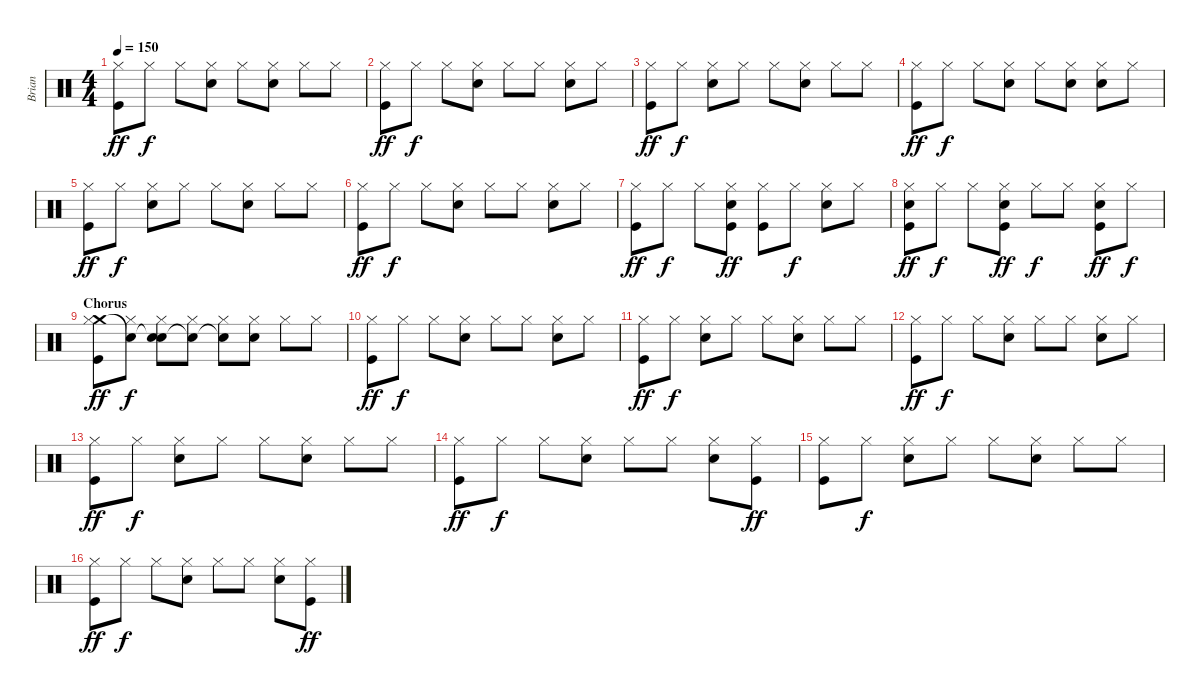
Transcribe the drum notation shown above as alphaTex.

\track ("Brian" "Brian") {instrument percussion}
\staff {score}
\articulation defaults
\ts (4 4)
\tempo 150
\clef neutral
\ks c
("Hi-Hat (closed)" "Kick (hit)").8{dy ff} "Hi-Hat (closed)".8{dy f} "Hi-Hat (closed)".8 ("Hi-Hat (closed)" "Snare (hit) 2").8 "Hi-Hat (closed)".8 ("Hi-Hat (closed)" "Snare (hit) 2").8 "Hi-Hat (closed)".8 "Hi-Hat (closed)".8 |
("Hi-Hat (closed)" "Kick (hit)").8{dy ff} "Hi-Hat (closed)".8{dy f} "Hi-Hat (closed)".8 ("Hi-Hat (closed)" "Snare (hit) 2").8 "Hi-Hat (closed)".8 "Hi-Hat (closed)".8 ("Hi-Hat (closed)" "Snare (hit) 2").8 "Hi-Hat (closed)".8 |
("Hi-Hat (closed)" "Kick (hit)").8{dy ff} "Hi-Hat (closed)".8{dy f} ("Hi-Hat (closed)" "Snare (hit) 2").8 "Hi-Hat (closed)".8 "Hi-Hat (closed)".8 ("Hi-Hat (closed)" "Snare (hit) 2").8 "Hi-Hat (closed)".8 "Hi-Hat (closed)".8 |
("Hi-Hat (closed)" "Kick (hit)").8{dy ff} "Hi-Hat (closed)".8{dy f} "Hi-Hat (closed)".8 ("Hi-Hat (closed)" "Snare (hit) 2").8 "Hi-Hat (closed)".8 ("Hi-Hat (closed)" "Snare (hit) 2").8 ("Hi-Hat (closed)" "Snare (hit) 2").8 "Hi-Hat (closed)".8 |
("Hi-Hat (closed)" "Kick (hit)").8{dy ff} "Hi-Hat (closed)".8{dy f} ("Hi-Hat (closed)" "Snare (hit) 2").8 "Hi-Hat (closed)".8 "Hi-Hat (closed)".8 ("Hi-Hat (closed)" "Snare (hit) 2").8 "Hi-Hat (closed)".8 "Hi-Hat (closed)".8 |
("Hi-Hat (closed)" "Kick (hit)").8{dy ff} "Hi-Hat (closed)".8{dy f} "Hi-Hat (closed)".8 ("Hi-Hat (closed)" "Snare (hit) 2").8 "Hi-Hat (closed)".8 "Hi-Hat (closed)".8 ("Hi-Hat (closed)" "Snare (hit) 2").8 "Hi-Hat (closed)".8 |
("Hi-Hat (closed)" "Kick (hit)").8{dy ff} "Hi-Hat (closed)".8{dy f} "Hi-Hat (closed)".8 ("Hi-Hat (closed)" "Snare (hit) 2" "Kick (hit)").8{dy ff} ("Hi-Hat (closed)" "Kick (hit)").8 "Hi-Hat (closed)".8{dy f} ("Hi-Hat (closed)" "Snare (hit) 2").8 "Hi-Hat (closed)".8 |
("Hi-Hat (closed)" "Snare (hit) 2" "Kick (hit)").8{dy ff} "Hi-Hat (closed)".8{dy f} "Hi-Hat (closed)".8 ("Hi-Hat (closed)" "Snare (hit) 2" "Kick (hit)").8{dy ff} "Hi-Hat (closed)".8{dy f} "Hi-Hat (closed)".8 ("Hi-Hat (closed)" "Snare (hit) 2" "Kick (hit)").8{dy ff} "Hi-Hat (closed)".8{dy f} |
\section ("" "Chorus")
("Crash medium (hit)" "Hi-Hat (closed)" "Kick (hit)").8{dy ff} ("Snare (hit)"{t} "Hi-Hat (closed)").8{dy f} ("Snare (hit)"{t} "Hi-Hat (closed)" "Snare (hit) 2").8 ("Snare (hit)"{t} "Hi-Hat (closed)").8 ("Snare (hit)"{t} "Hi-Hat (closed)").8 ("Hi-Hat (closed)" "Snare (hit) 2").8 "Hi-Hat (closed)".8 "Hi-Hat (closed)".8 |
("Hi-Hat (closed)" "Kick (hit)").8{dy ff} "Hi-Hat (closed)".8{dy f} "Hi-Hat (closed)".8 ("Hi-Hat (closed)" "Snare (hit) 2").8 "Hi-Hat (closed)".8 "Hi-Hat (closed)".8 ("Hi-Hat (closed)" "Snare (hit) 2").8 "Hi-Hat (closed)".8 |
("Hi-Hat (closed)" "Kick (hit)").8{dy ff} "Hi-Hat (closed)".8{dy f} ("Hi-Hat (closed)" "Snare (hit) 2").8 "Hi-Hat (closed)".8 "Hi-Hat (closed)".8 ("Hi-Hat (closed)" "Snare (hit) 2").8 "Hi-Hat (closed)".8 "Hi-Hat (closed)".8 |
("Hi-Hat (closed)" "Kick (hit)").8{dy ff} "Hi-Hat (closed)".8{dy f} "Hi-Hat (closed)".8 ("Hi-Hat (closed)" "Snare (hit) 2").8 "Hi-Hat (closed)".8 "Hi-Hat (closed)".8 ("Hi-Hat (closed)" "Snare (hit) 2").8 "Hi-Hat (closed)".8 |
("Hi-Hat (closed)" "Kick (hit)").8{dy ff} "Hi-Hat (closed)".8{dy f} ("Hi-Hat (closed)" "Snare (hit) 2").8 "Hi-Hat (closed)".8 "Hi-Hat (closed)".8 ("Hi-Hat (closed)" "Snare (hit) 2").8 "Hi-Hat (closed)".8 "Hi-Hat (closed)".8 |
("Hi-Hat (closed)" "Kick (hit)").8{dy ff} "Hi-Hat (closed)".8{dy f} "Hi-Hat (closed)".8 ("Hi-Hat (closed)" "Snare (hit) 2").8 "Hi-Hat (closed)".8 "Hi-Hat (closed)".8 ("Hi-Hat (closed)" "Snare (hit) 2").8 ("Hi-Hat (closed)" "Kick (hit)").8{dy ff} |
("Hi-Hat (closed)" "Kick (hit)").8 "Hi-Hat (closed)".8{dy f} ("Hi-Hat (closed)" "Snare (hit) 2").8 "Hi-Hat (closed)".8 "Hi-Hat (closed)".8 ("Hi-Hat (closed)" "Snare (hit) 2").8 "Hi-Hat (closed)".8 "Hi-Hat (closed)".8 |
("Hi-Hat (closed)" "Kick (hit)").8{dy ff} "Hi-Hat (closed)".8{dy f} "Hi-Hat (closed)".8 ("Hi-Hat (closed)" "Snare (hit) 2").8 "Hi-Hat (closed)".8 "Hi-Hat (closed)".8 ("Hi-Hat (closed)" "Snare (hit) 2").8 ("Hi-Hat (closed)" "Kick (hit)").8{dy ff}
